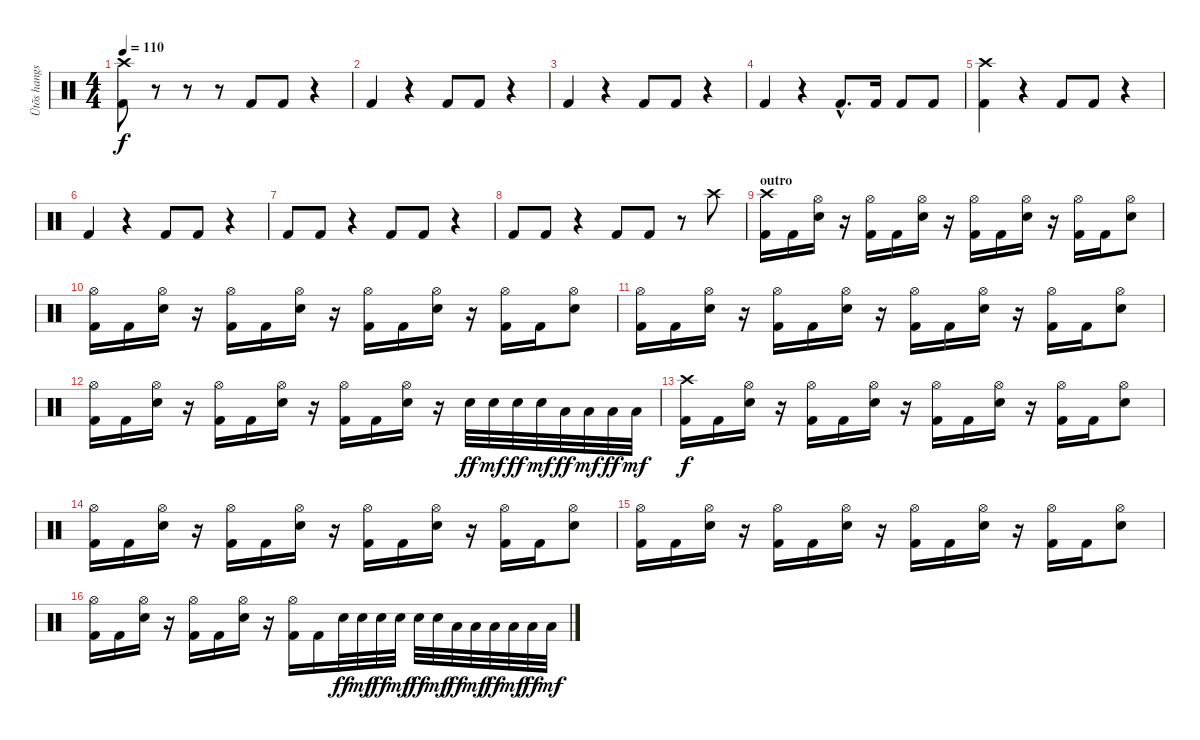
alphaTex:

\track ("Ütõs hangszer" "Ütõs hangs") {instrument percussion}
\staff {score}
\articulation defaults
\ts (4 4)
\tempo 110
\clef neutral
\ks c
("Crash high (hit)" "Kick (hit) 2").8{dy f} r.8 r.8 r.8 "Kick (hit) 2".8 "Kick (hit) 2".8 r.4 |
"Kick (hit) 2".4 r.4 "Kick (hit) 2".8 "Kick (hit) 2".8 r.4 |
"Kick (hit) 2".4 r.4 "Kick (hit) 2".8 "Kick (hit) 2".8 r.4 |
"Kick (hit) 2".4 r.4 "Kick (hit) 2"{hac}.8{d} "Kick (hit) 2".16 "Kick (hit) 2".8 "Kick (hit) 2".8 |
("Crash high (hit)" "Kick (hit) 2").4 r.4 "Kick (hit) 2".8 "Kick (hit) 2".8 r.4 |
"Kick (hit) 2".4 r.4 "Kick (hit) 2".8 "Kick (hit) 2".8 r.4 |
"Kick (hit) 2".8 "Kick (hit) 2".8 r.4 "Kick (hit) 2".8 "Kick (hit) 2".8 r.4 |
"Kick (hit) 2".8 "Kick (hit) 2".8 r.4 "Kick (hit) 2".8 "Kick (hit) 2".8 r.8 "Crash high (hit)".8 |
\section ("" "outro")
("Crash high (hit)" "Kick (hit) 2").16 "Kick (hit) 2".16 ("Hi-Hat (open)" "Snare (hit) 2").16 r.16 ("Hi-Hat (open)" "Kick (hit) 2").16 "Kick (hit) 2".16 ("Hi-Hat (open)" "Snare (hit) 2").16 r.16 ("Hi-Hat (open)" "Kick (hit) 2").16 "Kick (hit) 2".16 ("Hi-Hat (open)" "Snare (hit) 2").16 r.16 ("Hi-Hat (open)" "Kick (hit) 2").16 "Kick (hit) 2".16 ("Hi-Hat (open)" "Snare (hit) 2").8 |
("Hi-Hat (open)" "Kick (hit) 2").16 "Kick (hit) 2".16 ("Hi-Hat (open)" "Snare (hit) 2").16 r.16 ("Hi-Hat (open)" "Kick (hit) 2").16 "Kick (hit) 2".16 ("Hi-Hat (open)" "Snare (hit) 2").16 r.16 ("Hi-Hat (open)" "Kick (hit) 2").16 "Kick (hit) 2".16 ("Hi-Hat (open)" "Snare (hit) 2").16 r.16 ("Hi-Hat (open)" "Kick (hit) 2").16 "Kick (hit) 2".16 ("Hi-Hat (open)" "Snare (hit) 2").8 |
("Hi-Hat (open)" "Kick (hit) 2").16 "Kick (hit) 2".16 ("Hi-Hat (open)" "Snare (hit) 2").16 r.16 ("Hi-Hat (open)" "Kick (hit) 2").16 "Kick (hit) 2".16 ("Hi-Hat (open)" "Snare (hit) 2").16 r.16 ("Hi-Hat (open)" "Kick (hit) 2").16 "Kick (hit) 2".16 ("Hi-Hat (open)" "Snare (hit) 2").16 r.16 ("Hi-Hat (open)" "Kick (hit) 2").16 "Kick (hit) 2".16 ("Hi-Hat (open)" "Snare (hit) 2").8 |
("Hi-Hat (open)" "Kick (hit) 2").16 "Kick (hit) 2".16 ("Hi-Hat (open)" "Snare (hit) 2").16 r.16 ("Hi-Hat (open)" "Kick (hit) 2").16 "Kick (hit) 2".16 ("Hi-Hat (open)" "Snare (hit) 2").16 r.16 ("Hi-Hat (open)" "Kick (hit) 2").16 "Kick (hit) 2".16 ("Hi-Hat (open)" "Snare (hit) 2").16 r.16 "Snare (hit) 2".32{dy ff} "Snare (hit) 2".32{dy mf} "Snare (hit) 2".32{dy ff} "Snare (hit) 2".32{dy mf} "Low Tom (hit)".32{dy ff} "Low Tom (hit)".32{dy mf} "Low Tom (hit)".32{dy ff} "Low Tom (hit)".32{dy mf} |
("Crash high (hit)" "Kick (hit) 2").16{dy f} "Kick (hit) 2".16 ("Hi-Hat (open)" "Snare (hit) 2").16 r.16 ("Hi-Hat (open)" "Kick (hit) 2").16 "Kick (hit) 2".16 ("Hi-Hat (open)" "Snare (hit) 2").16 r.16 ("Hi-Hat (open)" "Kick (hit) 2").16 "Kick (hit) 2".16 ("Hi-Hat (open)" "Snare (hit) 2").16 r.16 ("Hi-Hat (open)" "Kick (hit) 2").16 "Kick (hit) 2".16 ("Hi-Hat (open)" "Snare (hit) 2").8 |
("Hi-Hat (open)" "Kick (hit) 2").16 "Kick (hit) 2".16 ("Hi-Hat (open)" "Snare (hit) 2").16 r.16 ("Hi-Hat (open)" "Kick (hit) 2").16 "Kick (hit) 2".16 ("Hi-Hat (open)" "Snare (hit) 2").16 r.16 ("Hi-Hat (open)" "Kick (hit) 2").16 "Kick (hit) 2".16 ("Hi-Hat (open)" "Snare (hit) 2").16 r.16 ("Hi-Hat (open)" "Kick (hit) 2").16 "Kick (hit) 2".16 ("Hi-Hat (open)" "Snare (hit) 2").8 |
("Hi-Hat (open)" "Kick (hit) 2").16 "Kick (hit) 2".16 ("Hi-Hat (open)" "Snare (hit) 2").16 r.16 ("Hi-Hat (open)" "Kick (hit) 2").16 "Kick (hit) 2".16 ("Hi-Hat (open)" "Snare (hit) 2").16 r.16 ("Hi-Hat (open)" "Kick (hit) 2").16 "Kick (hit) 2".16 ("Hi-Hat (open)" "Snare (hit) 2").16 r.16 ("Hi-Hat (open)" "Kick (hit) 2").16 "Kick (hit) 2".16 ("Hi-Hat (open)" "Snare (hit) 2").8 |
("Hi-Hat (open)" "Kick (hit) 2").16 "Kick (hit) 2".16 ("Hi-Hat (open)" "Snare (hit) 2").16 r.16 ("Hi-Hat (open)" "Kick (hit) 2").16 "Kick (hit) 2".16 ("Hi-Hat (open)" "Snare (hit) 2").16 r.16 ("Hi-Hat (open)" "Kick (hit) 2").16 "Kick (hit) 2".16 "Snare (hit) 2".32{dy ff} "Snare (hit) 2".32{dy mf} "Snare (hit) 2".32{dy ff} "Snare (hit) 2".32{dy mf} "Snare (hit) 2".32{dy ff} "Snare (hit) 2".32{dy mf} "Low Tom (hit)".32{dy ff} "Low Tom (hit)".32{dy mf} "Low Tom (hit)".32{dy ff} "Low Tom (hit)".32{dy mf} "Low Tom (hit)".32{dy ff} "Low Tom (hit)".32{dy mf}
